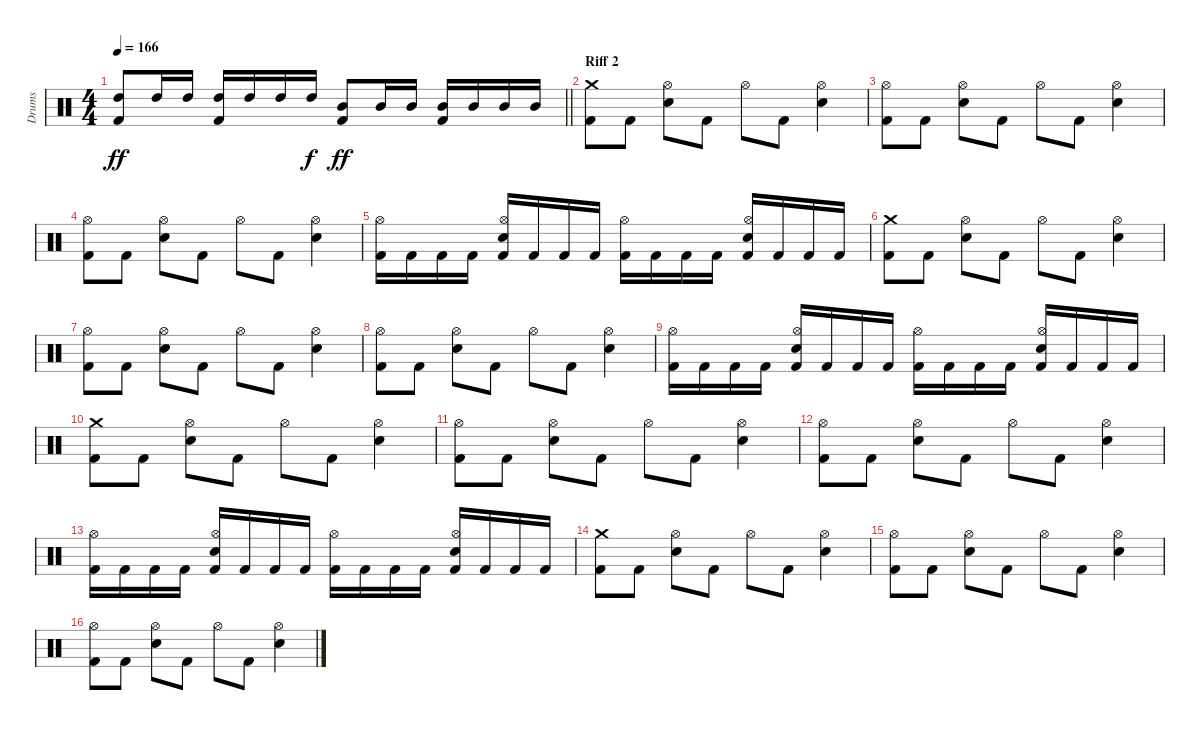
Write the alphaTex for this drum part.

\track ("Drums" "Drums") {instrument percussion}
\staff {score}
\articulation defaults
\ts (4 4)
\tempo 166
\clef neutral
\barLineRight lightlight
\ks c
("High Tom (hit)" "Kick (hit) 2").8{dy ff} "High Tom (hit)".16 "High Tom (hit)".16 ("High Tom (hit)" "Kick (hit) 2").16 "High Tom (hit)".16 "High Tom (hit)".16 "High Tom (hit)".16{dy f} ("Mid Tom (hit)" "Kick (hit) 2").8{dy ff} "Mid Tom (hit)".16 "Mid Tom (hit)".16 ("Mid Tom (hit)" "Kick (hit) 2").16 "Mid Tom (hit)".16 "Mid Tom (hit)".16 "Mid Tom (hit)".16 |
\section ("" "Riff 2")
("Crash medium (hit)" "Kick (hit) 2").8 "Kick (hit) 2".8 ("Hi-Hat (open)" "Snare (hit) 2").8 "Kick (hit) 2".8 "Hi-Hat (open)".8 "Kick (hit) 2".8 ("Hi-Hat (open)" "Snare (hit) 2").4 |
("Hi-Hat (open)" "Kick (hit) 2").8 "Kick (hit) 2".8 ("Hi-Hat (open)" "Snare (hit) 2").8 "Kick (hit) 2".8 "Hi-Hat (open)".8 "Kick (hit) 2".8 ("Hi-Hat (open)" "Snare (hit) 2").4 |
("Hi-Hat (open)" "Kick (hit) 2").8 "Kick (hit) 2".8 ("Hi-Hat (open)" "Snare (hit) 2").8 "Kick (hit) 2".8 "Hi-Hat (open)".8 "Kick (hit) 2".8 ("Hi-Hat (open)" "Snare (hit) 2").4 |
("Hi-Hat (open)" "Kick (hit) 2").16 "Kick (hit) 2".16 "Kick (hit) 2".16 "Kick (hit) 2".16 ("Hi-Hat (open)" "Snare (hit) 2" "Kick (hit) 2").16 "Kick (hit) 2".16 "Kick (hit) 2".16 "Kick (hit) 2".16 ("Hi-Hat (open)" "Kick (hit) 2").16 "Kick (hit) 2".16 "Kick (hit) 2".16 "Kick (hit) 2".16 ("Hi-Hat (open)" "Snare (hit) 2" "Kick (hit) 2").16 "Kick (hit) 2".16 "Kick (hit) 2".16 "Kick (hit) 2".16 |
("Crash medium (hit)" "Kick (hit) 2").8 "Kick (hit) 2".8 ("Hi-Hat (open)" "Snare (hit) 2").8 "Kick (hit) 2".8 "Hi-Hat (open)".8 "Kick (hit) 2".8 ("Hi-Hat (open)" "Snare (hit) 2").4 |
("Hi-Hat (open)" "Kick (hit) 2").8 "Kick (hit) 2".8 ("Hi-Hat (open)" "Snare (hit) 2").8 "Kick (hit) 2".8 "Hi-Hat (open)".8 "Kick (hit) 2".8 ("Hi-Hat (open)" "Snare (hit) 2").4 |
("Hi-Hat (open)" "Kick (hit) 2").8 "Kick (hit) 2".8 ("Hi-Hat (open)" "Snare (hit) 2").8 "Kick (hit) 2".8 "Hi-Hat (open)".8 "Kick (hit) 2".8 ("Hi-Hat (open)" "Snare (hit) 2").4 |
("Hi-Hat (open)" "Kick (hit) 2").16 "Kick (hit) 2".16 "Kick (hit) 2".16 "Kick (hit) 2".16 ("Hi-Hat (open)" "Snare (hit) 2" "Kick (hit) 2").16 "Kick (hit) 2".16 "Kick (hit) 2".16 "Kick (hit) 2".16 ("Hi-Hat (open)" "Kick (hit) 2").16 "Kick (hit) 2".16 "Kick (hit) 2".16 "Kick (hit) 2".16 ("Hi-Hat (open)" "Snare (hit) 2" "Kick (hit) 2").16 "Kick (hit) 2".16 "Kick (hit) 2".16 "Kick (hit) 2".16 |
("Crash medium (hit)" "Kick (hit) 2").8 "Kick (hit) 2".8 ("Hi-Hat (open)" "Snare (hit) 2").8 "Kick (hit) 2".8 "Hi-Hat (open)".8 "Kick (hit) 2".8 ("Hi-Hat (open)" "Snare (hit) 2").4 |
("Hi-Hat (open)" "Kick (hit) 2").8 "Kick (hit) 2".8 ("Hi-Hat (open)" "Snare (hit) 2").8 "Kick (hit) 2".8 "Hi-Hat (open)".8 "Kick (hit) 2".8 ("Hi-Hat (open)" "Snare (hit) 2").4 |
("Hi-Hat (open)" "Kick (hit) 2").8 "Kick (hit) 2".8 ("Hi-Hat (open)" "Snare (hit) 2").8 "Kick (hit) 2".8 "Hi-Hat (open)".8 "Kick (hit) 2".8 ("Hi-Hat (open)" "Snare (hit) 2").4 |
("Hi-Hat (open)" "Kick (hit) 2").16 "Kick (hit) 2".16 "Kick (hit) 2".16 "Kick (hit) 2".16 ("Hi-Hat (open)" "Snare (hit) 2" "Kick (hit) 2").16 "Kick (hit) 2".16 "Kick (hit) 2".16 "Kick (hit) 2".16 ("Hi-Hat (open)" "Kick (hit) 2").16 "Kick (hit) 2".16 "Kick (hit) 2".16 "Kick (hit) 2".16 ("Hi-Hat (open)" "Snare (hit) 2" "Kick (hit) 2").16 "Kick (hit) 2".16 "Kick (hit) 2".16 "Kick (hit) 2".16 |
("Crash medium (hit)" "Kick (hit) 2").8 "Kick (hit) 2".8 ("Hi-Hat (open)" "Snare (hit) 2").8 "Kick (hit) 2".8 "Hi-Hat (open)".8 "Kick (hit) 2".8 ("Hi-Hat (open)" "Snare (hit) 2").4 |
("Hi-Hat (open)" "Kick (hit) 2").8 "Kick (hit) 2".8 ("Hi-Hat (open)" "Snare (hit) 2").8 "Kick (hit) 2".8 "Hi-Hat (open)".8 "Kick (hit) 2".8 ("Hi-Hat (open)" "Snare (hit) 2").4 |
("Hi-Hat (open)" "Kick (hit) 2").8 "Kick (hit) 2".8 ("Hi-Hat (open)" "Snare (hit) 2").8 "Kick (hit) 2".8 "Hi-Hat (open)".8 "Kick (hit) 2".8 ("Hi-Hat (open)" "Snare (hit) 2").4
